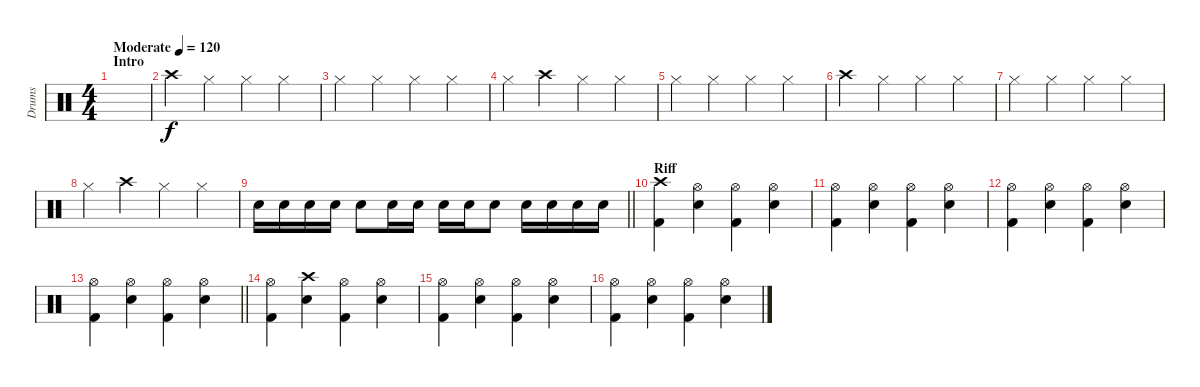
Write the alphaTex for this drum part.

\track ("Drums" "Drums") {instrument percussion}
\staff {score}
\articulation defaults
\ts (4 4)
\section ("" "Intro")
\tempo (120 "Moderate")
\clef neutral
\ks c
|
"Crash high (hit)".4 "Hi-Hat (closed)".4 "Hi-Hat (closed)".4 "Hi-Hat (closed)".4 |
"Hi-Hat (closed)".4 "Hi-Hat (closed)".4 "Hi-Hat (closed)".4 "Hi-Hat (closed)".4 |
"Hi-Hat (closed)".4 "Crash high (hit)".4 "Hi-Hat (closed)".4 "Hi-Hat (closed)".4 |
"Hi-Hat (closed)".4 "Hi-Hat (closed)".4 "Hi-Hat (closed)".4 "Hi-Hat (closed)".4 |
"Crash high (hit)".4 "Hi-Hat (closed)".4 "Hi-Hat (closed)".4 "Hi-Hat (closed)".4 |
"Hi-Hat (closed)".4 "Hi-Hat (closed)".4 "Hi-Hat (closed)".4 "Hi-Hat (closed)".4 |
"Hi-Hat (closed)".4 "Crash high (hit)".4 "Hi-Hat (closed)".4 "Hi-Hat (closed)".4 |
\barLineRight lightlight "Snare (hit) 2".16 "Snare (hit) 2".16 "Snare (hit) 2".16 "Snare (hit) 2".16 "Snare (hit) 2".8 "Snare (hit) 2".16 "Snare (hit) 2".16 "Snare (hit) 2".16 "Snare (hit) 2".16 "Snare (hit) 2".8 "Snare (hit) 2".16 "Snare (hit) 2".16 "Snare (hit) 2".16 "Snare (hit) 2".16
|
\section ("" "Riff")
("Crash high (hit)" "Kick (hit) 2").4 ("Hi-Hat (open)" "Snare (hit) 2").4 ("Hi-Hat (open)" "Kick (hit) 2").4 ("Hi-Hat (open)" "Snare (hit) 2").4 |
("Hi-Hat (open)" "Kick (hit) 2").4 ("Hi-Hat (open)" "Snare (hit) 2").4 ("Hi-Hat (open)" "Kick (hit) 2").4 ("Hi-Hat (open)" "Snare (hit) 2").4 |
("Hi-Hat (open)" "Kick (hit) 2").4 ("Hi-Hat (open)" "Snare (hit) 2").4 ("Hi-Hat (open)" "Kick (hit) 2").4 ("Hi-Hat (open)" "Snare (hit) 2").4 |
\barLineRight lightlight
("Hi-Hat (open)" "Kick (hit) 2").4 ("Hi-Hat (open)" "Snare (hit) 2").4 ("Hi-Hat (open)" "Kick (hit) 2").4 ("Hi-Hat (open)" "Snare (hit) 2").4 |
("Hi-Hat (open)" "Kick (hit) 2").4 ("Crash high (hit)" "Snare (hit) 2").4 ("Hi-Hat (open)" "Kick (hit) 2").4 ("Hi-Hat (open)" "Snare (hit) 2").4 |
("Hi-Hat (open)" "Kick (hit) 2").4 ("Hi-Hat (open)" "Snare (hit) 2").4 ("Hi-Hat (open)" "Kick (hit) 2").4 ("Hi-Hat (open)" "Snare (hit) 2").4 |
("Hi-Hat (open)" "Kick (hit) 2").4 ("Hi-Hat (open)" "Snare (hit) 2").4 ("Hi-Hat (open)" "Kick (hit) 2").4 ("Hi-Hat (open)" "Snare (hit) 2").4
